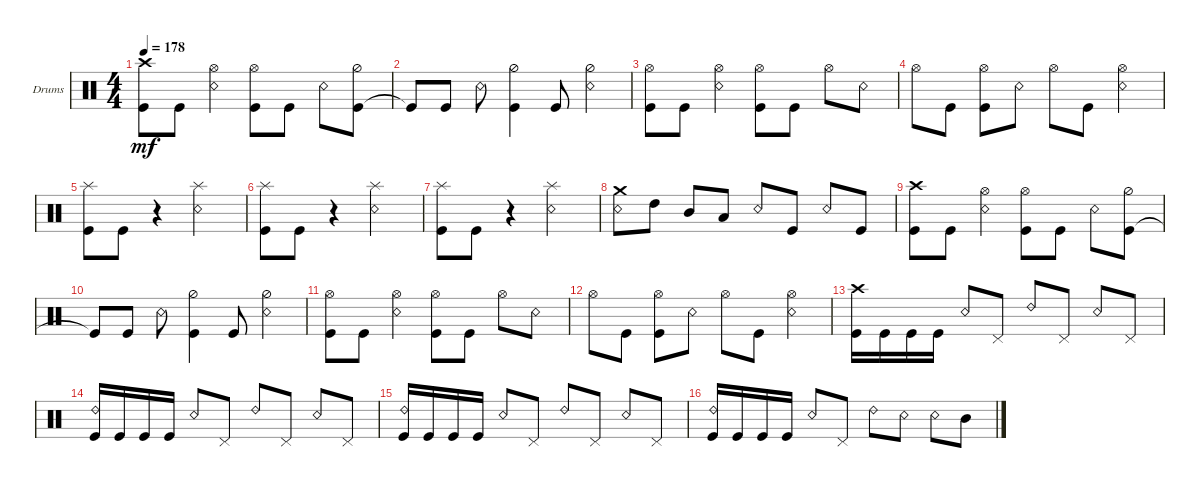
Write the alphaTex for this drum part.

\defaultSystemsLayout 4
\bracketExtendMode groupsimilarinstruments
\firstSystemTrackNameOrientation horizontal
\otherSystemsTrackNameOrientation horizontal
\track ("Drumkit" "Drums") {instrument percussion}
\staff {score}
\articulation defaults
\ts (4 4)
\tempo 178
\clef neutral
\ks c
("Kick (hit)" "Crash high (hit)").8{dy mf} "Kick (hit)".8 ("Snare (rim shot)" "Hi-Hat (open)").4 ("Kick (hit)" "Hi-Hat (open)").8 "Kick (hit)".8 "Snare (rim shot)".8 ("Kick (hit)" "Hi-Hat (half)").8 |
"Kick (hit)"{t}.8 "Kick (hit)".8 "Snare (rim shot)".8 ("Kick (hit)" "Hi-Hat (half)").4 "Kick (hit)".8 ("Snare (rim shot)" "Hi-Hat (half)").4 |
("Kick (hit)" "Hi-Hat (open)").8 "Kick (hit)".8 ("Hi-Hat (open)" "Snare (rim shot)").4 ("Kick (hit)" "Hi-Hat (open)").8 "Kick (hit)".8 "Hi-Hat (open)".8 "Snare (rim shot)".8 |
"Hi-Hat (open)".8 "Kick (hit)".8 ("Kick (hit)" "Hi-Hat (open)").8 "Snare (rim shot)".8 "Hi-Hat (open)".8 "Kick (hit)".8 ("Hi-Hat (open)" "Snare (rim shot)").4 |
("Kick (hit)" "Splash (hit)").8 "Kick (hit)".8 r.4 ("Splash (hit)" "Snare (rim shot)").2 |
("Kick (hit)" "Splash (hit)").8 "Kick (hit)".8 r.4 ("Splash (hit)" "Snare (rim shot)").2 |
("Kick (hit)" "Splash (hit)").8 "Kick (hit)".8 r.4 ("Splash (hit)" "Snare (rim shot)").2 |
("Snare (rim shot)" "Crash medium (hit)").8 "High Tom (hit)".8 "Mid Tom (hit)".8 "Low Tom (hit)".8 "Snare (rim shot)".8 "Kick (hit)".8 "Snare (rim shot)".8 "Kick (hit)".8 |
("Kick (hit)" "Crash high (hit)").8 "Kick (hit)".8 ("Snare (rim shot)" "Hi-Hat (open)").4 ("Kick (hit)" "Hi-Hat (open)").8 "Kick (hit)".8 "Snare (rim shot)".8 ("Kick (hit)" "Hi-Hat (half)").8 |
"Kick (hit)"{t}.8 "Kick (hit)".8 "Snare (rim shot)".8 ("Kick (hit)" "Hi-Hat (half)").4 "Kick (hit)".8 ("Snare (rim shot)" "Hi-Hat (half)").4 |
("Kick (hit)" "Hi-Hat (open)").8 "Kick (hit)".8 ("Hi-Hat (open)" "Snare (rim shot)").4 ("Kick (hit)" "Hi-Hat (open)").8 "Kick (hit)".8 "Hi-Hat (open)".8 "Snare (rim shot)".8 |
"Hi-Hat (open)".8 "Kick (hit)".8 ("Kick (hit)" "Hi-Hat (open)").8 "Snare (rim shot)".8 "Hi-Hat (open)".8 "Kick (hit)".8 ("Hi-Hat (open)" "Snare (rim shot)").4 |
("Kick (hit)" "Crash high (hit)").16 "Kick (hit)".16 "Kick (hit)".16 "Kick (hit)".16 "Snare (rim shot)".8 "Pedal Hi-Hat (hit)".8 "Ride (bell) 2".8 "Pedal Hi-Hat (hit)".8 "Snare (rim shot)".8 "Pedal Hi-Hat (hit)".8 |
("Kick (hit)" "Ride (bell) 2").16 "Kick (hit)".16 "Kick (hit)".16 "Kick (hit)".16 "Snare (rim shot)".8 "Pedal Hi-Hat (hit)".8 "Ride (bell) 2".8 "Pedal Hi-Hat (hit)".8 "Snare (rim shot)".8 "Pedal Hi-Hat (hit)".8 |
("Kick (hit)" "Ride (bell) 2").16 "Kick (hit)".16 "Kick (hit)".16 "Kick (hit)".16 "Snare (rim shot)".8 "Pedal Hi-Hat (hit)".8 "Ride (bell) 2".8 "Pedal Hi-Hat (hit)".8 "Snare (rim shot)".8 "Pedal Hi-Hat (hit)".8 |
("Kick (hit)" "Ride (bell) 2").16 "Kick (hit)".16 "Kick (hit)".16 "Kick (hit)".16 "Snare (rim shot)".8 "Pedal Hi-Hat (hit)".8 "Ride (bell) 2".8 "Snare (rim shot)".8 "Snare (rim shot)".8 "Mid Tom (hit)".8
